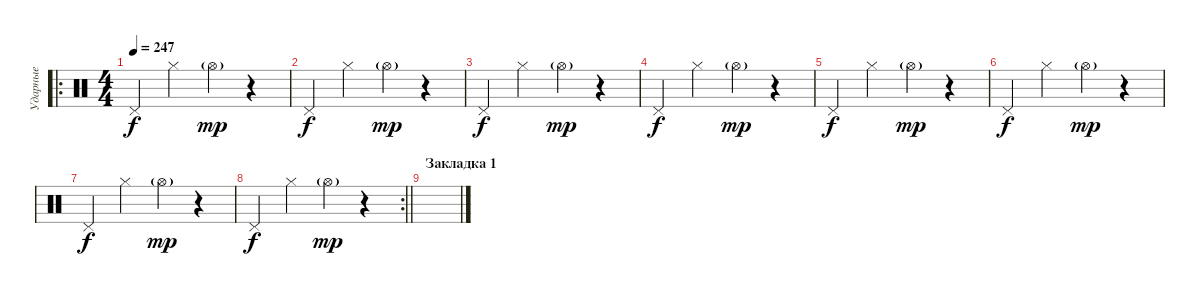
\track ("Ударные" "Ударные") {instrument percussion}
\staff {score}
\articulation defaults
\ro
\ts (4 4)
\tempo 247
\clef neutral
\ks c "Pedal Hi-Hat (hit)".4{dy f} "Hi-Hat (closed)".4 "Hi-Hat (open)"{g}.4{dy mp}
r.4 |
"Pedal Hi-Hat (hit)".4{dy f} "Hi-Hat (closed)".4 "Hi-Hat (open)"{g}.4{dy mp} r.4 |
"Pedal Hi-Hat (hit)".4{dy f} "Hi-Hat (closed)".4 "Hi-Hat (open)"{g}.4{dy mp} r.4 |
"Pedal Hi-Hat (hit)".4{dy f} "Hi-Hat (closed)".4 "Hi-Hat (open)"{g}.4{dy mp} r.4 |
"Pedal Hi-Hat (hit)".4{dy f} "Hi-Hat (closed)".4 "Hi-Hat (open)"{g}.4{dy mp} r.4 |
"Pedal Hi-Hat (hit)".4{dy f} "Hi-Hat (closed)".4 "Hi-Hat (open)"{g}.4{dy mp} r.4 |
"Pedal Hi-Hat (hit)".4{dy f} "Hi-Hat (closed)".4 "Hi-Hat (open)"{g}.4{dy mp} r.4 |
\rc 2
\barLineRight lightlight "Pedal Hi-Hat (hit)".4{dy f} "Hi-Hat (closed)".4 "Hi-Hat (open)"{g}.4{dy mp}
r.4 |
\section ("" "Закладка 1")
